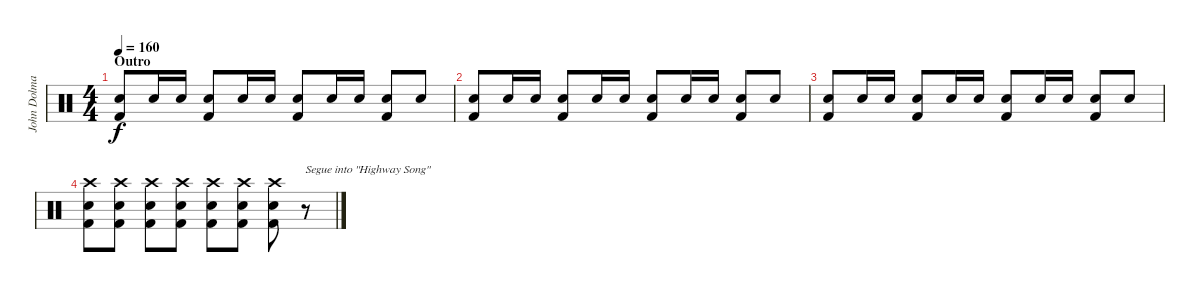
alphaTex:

\track ("John Dolmayan" "John Dolma") {instrument percussion}
\staff {score}
\articulation defaults
\ts (4 4)
\section ("" "Outro")
\tempo 160
\clef neutral
\ks c
("Electric Snare (hit)" "Kick (hit) 2").8{dy f} "Electric Snare (hit)".16 "Electric Snare (hit)".16 ("Electric Snare (hit)" "Kick (hit) 2").8 "Electric Snare (hit)".16 "Electric Snare (hit)".16 ("Electric Snare (hit)" "Kick (hit) 2").8 "Electric Snare (hit)".16 "Electric Snare (hit)".16 ("Electric Snare (hit)" "Kick (hit) 2").8 "Electric Snare (hit)".8 |
("Electric Snare (hit)" "Kick (hit) 2").8 "Electric Snare (hit)".16 "Electric Snare (hit)".16 ("Electric Snare (hit)" "Kick (hit) 2").8 "Electric Snare (hit)".16 "Electric Snare (hit)".16 ("Electric Snare (hit)" "Kick (hit) 2").8 "Electric Snare (hit)".16 "Electric Snare (hit)".16 ("Electric Snare (hit)" "Kick (hit) 2").8 "Electric Snare (hit)".8 |
("Electric Snare (hit)" "Kick (hit) 2").8 "Electric Snare (hit)".16 "Electric Snare (hit)".16 ("Electric Snare (hit)" "Kick (hit) 2").8 "Electric Snare (hit)".16 "Electric Snare (hit)".16 ("Electric Snare (hit)" "Kick (hit) 2").8 "Electric Snare (hit)".16 "Electric Snare (hit)".16 ("Electric Snare (hit)" "Kick (hit) 2").8 "Electric Snare (hit)".8 |
("Crash high (hit)" "Electric Snare (hit)" "Kick (hit) 2").8 ("Crash high (hit)" "Electric Snare (hit)" "Kick (hit) 2").8 ("Crash high (hit)" "Electric Snare (hit)" "Kick (hit) 2").8 ("Crash high (hit)" "Electric Snare (hit)" "Kick (hit) 2").8 ("Crash high (hit)" "Electric Snare (hit)" "Kick (hit) 2").8 ("Crash high (hit)" "Electric Snare (hit)" "Kick (hit) 2").8 ("Crash high (hit)" "Electric Snare (hit)" "Kick (hit) 2").8 r.8{txt "Segue into \"Highway Song\""}
